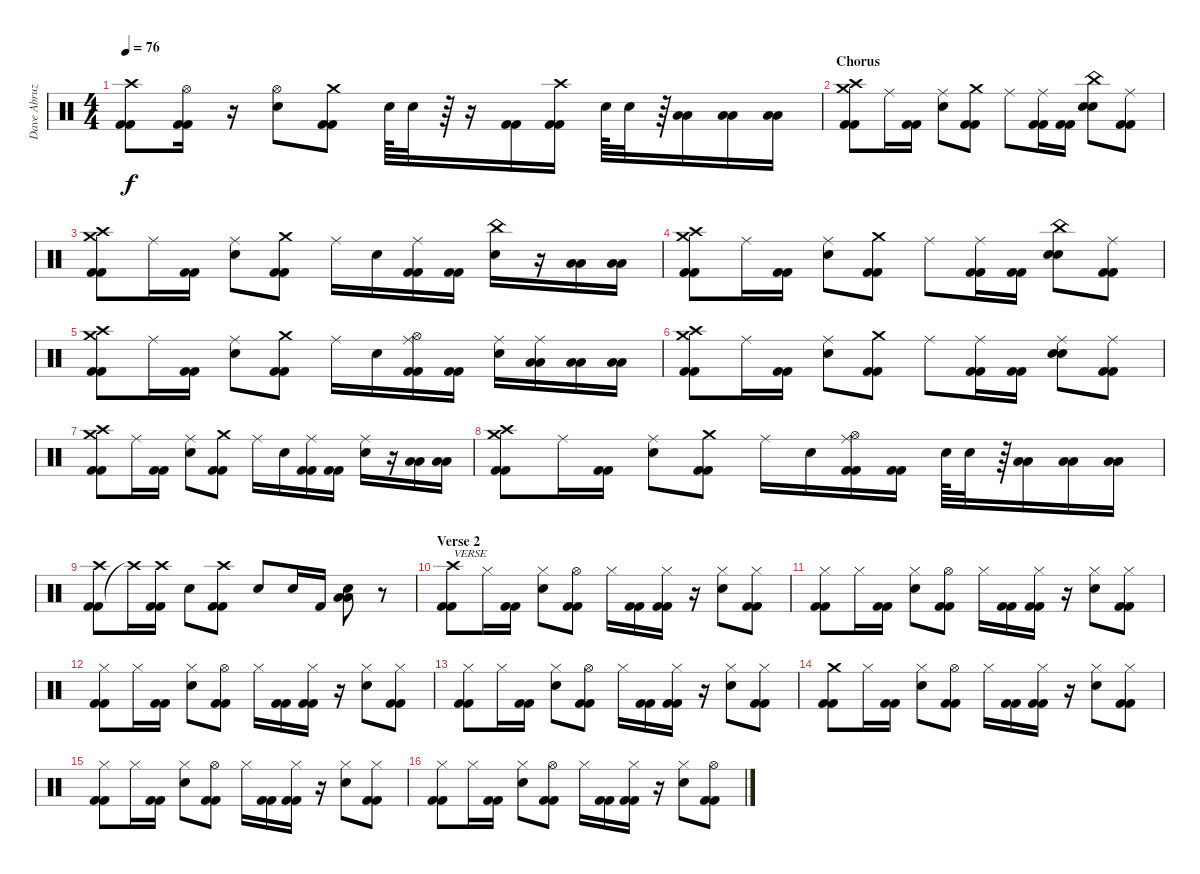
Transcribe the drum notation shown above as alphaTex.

\track ("Dave Abruzzese" "Dave Abruz") {instrument percussion}
\staff {score}
\articulation defaults
\ts (4 4)
\tempo 76
\clef neutral
\ks c
("Kick (hit) 2" "Kick (hit) 2" "Crash high (hit)").8{dy f} ("Kick (hit) 2" "Kick (hit) 2" "Hi-Hat (open)").16 r.16 ("Snare (hit) 2" "Hi-Hat (open)").8 ("Kick (hit) 2" "Kick (hit) 2" "Crash medium (hit)").8 "Snare (hit) 2".64 "Snare (hit) 2".32 r.64 r.16 ("Kick (hit) 2" "Kick (hit) 2").16 ("Kick (hit) 2" "Kick (hit) 2" "Crash high (hit)").16 "Snare (hit) 2".64 "Snare (hit) 2".32 r.64 ("Low Tom (hit)" "Low Tom (hit)").16 ("Low Tom (hit)" "Low Tom (hit)").16 ("Low Tom (hit)" "Low Tom (hit)").16 |
\section ("" "Chorus")
("Crash medium (hit)" "Kick (hit) 2" "Kick (hit) 2" "Crash high (hit)").8 "Ride (middle)".16 ("Kick (hit) 2" "Kick (hit) 2").16 ("Snare (hit) 2" "Ride (middle)").8 ("Kick (hit) 2" "Kick (hit) 2" "Crash medium (hit)").8 "Ride (middle)".8 ("Kick (hit) 2" "Kick (hit) 2" "Ride (middle)").16 ("Kick (hit) 2" "Kick (hit) 2").16 ("Snare (hit) 2" "Snare (hit) 2" "China (hit)").8 ("Kick (hit) 2" "Kick (hit) 2" "Ride (middle)").8 |
("Crash medium (hit)" "Kick (hit) 2" "Kick (hit) 2" "Crash high (hit)").8 "Ride (middle)".16 ("Kick (hit) 2" "Kick (hit) 2").16 ("Snare (hit) 2" "Ride (middle)").8 ("Kick (hit) 2" "Kick (hit) 2" "Crash medium (hit)").8 "Ride (middle)".16 "Snare (hit) 2".16 ("Kick (hit) 2" "Kick (hit) 2" "Ride (middle)").16 ("Kick (hit) 2" "Kick (hit) 2").16 ("Snare (hit) 2" "China (hit)").16 r.16 ("Low Tom (hit)" "Low Tom (hit)").16 ("Low Tom (hit)" "Low Tom (hit)").16 |
("Crash medium (hit)" "Kick (hit) 2" "Kick (hit) 2" "Crash high (hit)").8 "Ride (middle)".16 ("Kick (hit) 2" "Kick (hit) 2").16 ("Snare (hit) 2" "Ride (middle)").8 ("Kick (hit) 2" "Kick (hit) 2" "Crash medium (hit)").8 "Ride (middle)".8 ("Kick (hit) 2" "Kick (hit) 2" "Ride (middle)").16 ("Kick (hit) 2" "Kick (hit) 2").16 ("Snare (hit) 2" "Snare (hit) 2" "China (hit)").8 ("Kick (hit) 2" "Kick (hit) 2" "Ride (middle)").8 |
("Crash medium (hit)" "Kick (hit) 2" "Kick (hit) 2" "Crash high (hit)").8 "Ride (middle)".16 ("Kick (hit) 2" "Kick (hit) 2").16 ("Snare (hit) 2" "Ride (middle)").8 ("Kick (hit) 2" "Kick (hit) 2" "Crash medium (hit)").8 "Ride (middle)".16 "Snare (hit) 2".16 ("Hi-Hat (open)" "Kick (hit) 2" "Kick (hit) 2" "Ride (middle)").16 ("Kick (hit) 2" "Kick (hit) 2").16 ("Snare (hit) 2" "Ride (middle)").16 ("Low Tom (hit)" "Low Tom (hit)" "Ride (middle)").16 ("Low Tom (hit)" "Low Tom (hit)").16 ("Low Tom (hit)" "Low Tom (hit)").16 |
("Crash medium (hit)" "Kick (hit) 2" "Kick (hit) 2" "Crash high (hit)").8 "Ride (middle)".16 ("Kick (hit) 2" "Kick (hit) 2").16 ("Snare (hit) 2" "Ride (middle)").8 ("Kick (hit) 2" "Kick (hit) 2" "Crash medium (hit)").8 "Ride (middle)".8 ("Kick (hit) 2" "Kick (hit) 2" "Ride (middle)").16 ("Kick (hit) 2" "Kick (hit) 2").16 ("Snare (hit) 2" "Snare (hit) 2" "Ride (middle)").8 ("Kick (hit) 2" "Kick (hit) 2" "Ride (middle)").8 |
("Crash medium (hit)" "Kick (hit) 2" "Kick (hit) 2" "Crash high (hit)").8 "Ride (middle)".16 ("Kick (hit) 2" "Kick (hit) 2").16 ("Snare (hit) 2" "Ride (middle)").8 ("Kick (hit) 2" "Kick (hit) 2" "Crash medium (hit)").8 "Ride (middle)".16 "Snare (hit) 2".16 ("Kick (hit) 2" "Kick (hit) 2" "Ride (middle)").16 ("Kick (hit) 2" "Kick (hit) 2").16 ("Snare (hit) 2" "Ride (middle)").16 r.16 ("Low Tom (hit)" "Low Tom (hit)").16 ("Low Tom (hit)" "Low Tom (hit)").16 |
("Crash medium (hit)" "Kick (hit) 2" "Kick (hit) 2" "Crash high (hit)").8 "Ride (middle)".16 ("Kick (hit) 2" "Kick (hit) 2").16 ("Snare (hit) 2" "Ride (middle)").8 ("Kick (hit) 2" "Kick (hit) 2" "Crash medium (hit)").8 "Ride (middle)".16 "Snare (hit) 2".16 ("Hi-Hat (open)" "Kick (hit) 2" "Kick (hit) 2" "Ride (middle)").16 ("Kick (hit) 2" "Kick (hit) 2").16 "Snare (hit) 2".64 "Snare (hit) 2".32 r.64 ("Low Tom (hit)" "Low Tom (hit)").16 ("Low Tom (hit)" "Low Tom (hit)").16 ("Low Tom (hit)" "Low Tom (hit)").16 |
("Kick (hit) 2" "Kick (hit) 2" "Crash high (hit)").8 "Crash high (hit)"{t}.16 ("Kick (hit) 2" "Kick (hit) 2" "Crash high (hit)").16 "Snare (hit)".8 ("Kick (hit) 2" "Kick (hit) 2" "Crash high (hit)").8 "Snare (hit)".8 "Snare (hit)".16 "Kick (hit) 2".16 ("Low Tom (hit)" "Low Tom (hit)" "Snare (hit) 2").8 r.8 |
\section ("" "Verse 2")
("Kick (hit) 2" "Kick (hit) 2" "Crash high (hit)").8{txt "VERSE"} "Hi-Hat (closed)".16 ("Kick (hit) 2" "Kick (hit) 2").16 ("Snare (hit) 2" "Hi-Hat (closed)").8 ("Kick (hit) 2" "Kick (hit) 2" "Hi-Hat (open)").8 "Hi-Hat (closed)".16 ("Kick (hit) 2" "Kick (hit) 2").16 ("Kick (hit) 2" "Kick (hit) 2" "Hi-Hat (closed)").16 r.16 ("Snare (hit) 2" "Hi-Hat (closed)").8 ("Kick (hit) 2" "Kick (hit) 2" "Hi-Hat (closed)").8 |
("Kick (hit) 2" "Kick (hit) 2" "Hi-Hat (closed)").8 "Hi-Hat (closed)".16 ("Kick (hit) 2" "Kick (hit) 2").16 ("Snare (hit) 2" "Hi-Hat (closed)").8 ("Kick (hit) 2" "Kick (hit) 2" "Hi-Hat (open)").8 "Hi-Hat (closed)".16 ("Kick (hit) 2" "Kick (hit) 2").16 ("Kick (hit) 2" "Kick (hit) 2" "Hi-Hat (closed)").16 r.16 ("Snare (hit) 2" "Hi-Hat (closed)").8 ("Kick (hit) 2" "Kick (hit) 2" "Hi-Hat (closed)").8 |
("Kick (hit) 2" "Kick (hit) 2" "Hi-Hat (closed)").8 "Hi-Hat (closed)".16 ("Kick (hit) 2" "Kick (hit) 2").16 ("Snare (hit) 2" "Hi-Hat (closed)").8 ("Kick (hit) 2" "Kick (hit) 2" "Hi-Hat (open)").8 "Hi-Hat (closed)".16 ("Kick (hit) 2" "Kick (hit) 2").16 ("Kick (hit) 2" "Kick (hit) 2" "Hi-Hat (closed)").16 r.16 ("Snare (hit) 2" "Hi-Hat (closed)").8 ("Kick (hit) 2" "Kick (hit) 2" "Hi-Hat (closed)").8 |
("Kick (hit) 2" "Kick (hit) 2" "Hi-Hat (closed)").8 "Hi-Hat (closed)".16 ("Kick (hit) 2" "Kick (hit) 2").16 ("Snare (hit) 2" "Hi-Hat (closed)").8 ("Kick (hit) 2" "Kick (hit) 2" "Hi-Hat (open)").8 "Hi-Hat (closed)".16 ("Kick (hit) 2" "Kick (hit) 2").16 ("Kick (hit) 2" "Kick (hit) 2" "Hi-Hat (closed)").16 r.16 ("Snare (hit) 2" "Hi-Hat (closed)").8 ("Kick (hit) 2" "Kick (hit) 2" "Hi-Hat (closed)").8 |
("Kick (hit) 2" "Kick (hit) 2" "Crash medium (hit)").8 "Hi-Hat (closed)".16 ("Kick (hit) 2" "Kick (hit) 2").16 ("Snare (hit) 2" "Hi-Hat (closed)").8 ("Kick (hit) 2" "Kick (hit) 2" "Hi-Hat (open)").8 "Hi-Hat (closed)".16 ("Kick (hit) 2" "Kick (hit) 2").16 ("Kick (hit) 2" "Kick (hit) 2" "Hi-Hat (closed)").16 r.16 ("Snare (hit) 2" "Hi-Hat (closed)").8 ("Kick (hit) 2" "Kick (hit) 2" "Hi-Hat (closed)").8 |
("Kick (hit) 2" "Kick (hit) 2" "Hi-Hat (closed)").8 "Hi-Hat (closed)".16 ("Kick (hit) 2" "Kick (hit) 2").16 ("Snare (hit) 2" "Hi-Hat (closed)").8 ("Kick (hit) 2" "Kick (hit) 2" "Hi-Hat (open)").8 "Hi-Hat (closed)".16 ("Kick (hit) 2" "Kick (hit) 2").16 ("Kick (hit) 2" "Kick (hit) 2" "Hi-Hat (closed)").16 r.16 ("Snare (hit) 2" "Hi-Hat (closed)").8 ("Kick (hit) 2" "Kick (hit) 2" "Hi-Hat (closed)").8 |
("Kick (hit) 2" "Kick (hit) 2" "Hi-Hat (closed)").8 "Hi-Hat (closed)".16 ("Kick (hit) 2" "Kick (hit) 2").16 ("Snare (hit) 2" "Hi-Hat (closed)").8 ("Kick (hit) 2" "Kick (hit) 2" "Hi-Hat (open)").8 "Hi-Hat (closed)".16 ("Kick (hit) 2" "Kick (hit) 2").16 ("Kick (hit) 2" "Kick (hit) 2" "Hi-Hat (closed)").16 r.16 ("Snare (hit) 2" "Hi-Hat (closed)").8 ("Kick (hit) 2" "Kick (hit) 2" "Hi-Hat (open)").8
